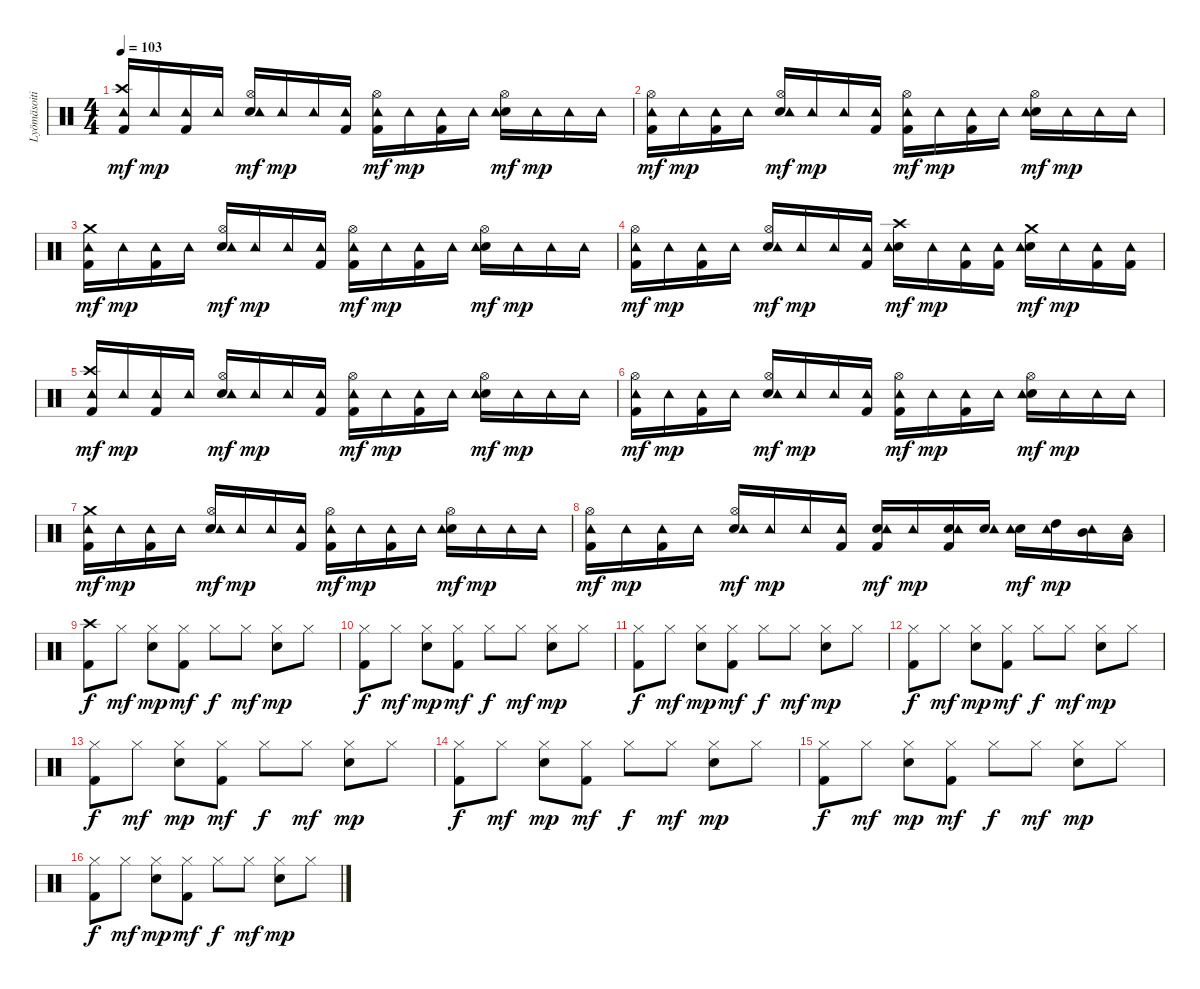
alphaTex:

\track ("Lyömäsoitin" "Lyömäsoiti") {instrument percussion}
\staff {score}
\articulation defaults
\ts (4 4)
\tempo 103
\clef neutral
\ks c
("Kick (hit) 2" "Crash high (hit)" "Tambourine (hit)").16{dy mf} "Tambourine (hit)".16{dy mp} ("Kick (hit) 2" "Tambourine (hit)").16 "Tambourine (hit)".16 ("Hi-Hat (open)" "Snare (hit) 2" "Tambourine (hit)").16{dy mf} "Tambourine (hit)".16{dy mp} "Tambourine (hit)".16 ("Kick (hit) 2" "Tambourine (hit)").16 ("Kick (hit) 2" "Hi-Hat (open)" "Tambourine (hit)").16{dy mf} "Tambourine (hit)".16{dy mp} ("Kick (hit) 2" "Tambourine (hit)").16 "Tambourine (hit)".16 ("Hi-Hat (open)" "Snare (hit) 2" "Tambourine (hit)").16{dy mf} "Tambourine (hit)".16{dy mp} "Tambourine (hit)".16 "Tambourine (hit)".16 |
("Kick (hit) 2" "Hi-Hat (open)" "Tambourine (hit)").16{dy mf} "Tambourine (hit)".16{dy mp} ("Kick (hit) 2" "Tambourine (hit)").16 "Tambourine (hit)".16 ("Hi-Hat (open)" "Snare (hit) 2" "Tambourine (hit)").16{dy mf} "Tambourine (hit)".16{dy mp} "Tambourine (hit)".16 ("Kick (hit) 2" "Tambourine (hit)").16 ("Kick (hit) 2" "Hi-Hat (open)" "Tambourine (hit)").16{dy mf} "Tambourine (hit)".16{dy mp} ("Kick (hit) 2" "Tambourine (hit)").16 "Tambourine (hit)".16 ("Hi-Hat (open)" "Snare (hit) 2" "Tambourine (hit)").16{dy mf} "Tambourine (hit)".16{dy mp} "Tambourine (hit)".16 "Tambourine (hit)".16 |
("Kick (hit) 2" "Crash medium (hit)" "Tambourine (hit)").16{dy mf} "Tambourine (hit)".16{dy mp} ("Kick (hit) 2" "Tambourine (hit)").16 "Tambourine (hit)".16 ("Hi-Hat (open)" "Snare (hit) 2" "Tambourine (hit)").16{dy mf} "Tambourine (hit)".16{dy mp} "Tambourine (hit)".16 ("Kick (hit) 2" "Tambourine (hit)").16 ("Kick (hit) 2" "Hi-Hat (open)" "Tambourine (hit)").16{dy mf} "Tambourine (hit)".16{dy mp} ("Kick (hit) 2" "Tambourine (hit)").16 "Tambourine (hit)".16 ("Hi-Hat (open)" "Snare (hit) 2" "Tambourine (hit)").16{dy mf} "Tambourine (hit)".16{dy mp} "Tambourine (hit)".16 "Tambourine (hit)".16 |
("Kick (hit) 2" "Hi-Hat (open)" "Tambourine (hit)").16{dy mf} "Tambourine (hit)".16{dy mp} ("Kick (hit) 2" "Tambourine (hit)").16 "Tambourine (hit)".16 ("Hi-Hat (open)" "Snare (hit) 2" "Tambourine (hit)").16{dy mf} "Tambourine (hit)".16{dy mp} "Tambourine (hit)".16 ("Kick (hit) 2" "Tambourine (hit)").16 ("Crash high (hit)" "Snare (hit) 2" "Tambourine (hit)").16{dy mf} "Tambourine (hit)".16{dy mp} ("Kick (hit) 2" "Tambourine (hit)").16 ("Kick (hit) 2" "Tambourine (hit)").16 ("Crash medium (hit)" "Snare (hit) 2" "Tambourine (hit)").16{dy mf} "Tambourine (hit)".16{dy mp} ("Kick (hit) 2" "Tambourine (hit)").16 ("Kick (hit) 2" "Tambourine (hit)").16 |
("Kick (hit) 2" "Crash high (hit)" "Tambourine (hit)").16{dy mf} "Tambourine (hit)".16{dy mp} ("Kick (hit) 2" "Tambourine (hit)").16 "Tambourine (hit)".16 ("Hi-Hat (open)" "Snare (hit) 2" "Tambourine (hit)").16{dy mf} "Tambourine (hit)".16{dy mp} "Tambourine (hit)".16 ("Kick (hit) 2" "Tambourine (hit)").16 ("Kick (hit) 2" "Hi-Hat (open)" "Tambourine (hit)").16{dy mf} "Tambourine (hit)".16{dy mp} ("Kick (hit) 2" "Tambourine (hit)").16 "Tambourine (hit)".16 ("Hi-Hat (open)" "Snare (hit) 2" "Tambourine (hit)").16{dy mf} "Tambourine (hit)".16{dy mp} "Tambourine (hit)".16 "Tambourine (hit)".16 |
("Kick (hit) 2" "Hi-Hat (open)" "Tambourine (hit)").16{dy mf} "Tambourine (hit)".16{dy mp} ("Kick (hit) 2" "Tambourine (hit)").16 "Tambourine (hit)".16 ("Hi-Hat (open)" "Snare (hit) 2" "Tambourine (hit)").16{dy mf} "Tambourine (hit)".16{dy mp} "Tambourine (hit)".16 ("Kick (hit) 2" "Tambourine (hit)").16 ("Kick (hit) 2" "Hi-Hat (open)" "Tambourine (hit)").16{dy mf} "Tambourine (hit)".16{dy mp} ("Kick (hit) 2" "Tambourine (hit)").16 "Tambourine (hit)".16 ("Hi-Hat (open)" "Snare (hit) 2" "Tambourine (hit)").16{dy mf} "Tambourine (hit)".16{dy mp} "Tambourine (hit)".16 "Tambourine (hit)".16 |
("Kick (hit) 2" "Crash medium (hit)" "Tambourine (hit)").16{dy mf} "Tambourine (hit)".16{dy mp} ("Kick (hit) 2" "Tambourine (hit)").16 "Tambourine (hit)".16 ("Hi-Hat (open)" "Snare (hit) 2" "Tambourine (hit)").16{dy mf} "Tambourine (hit)".16{dy mp} "Tambourine (hit)".16 ("Kick (hit) 2" "Tambourine (hit)").16 ("Kick (hit) 2" "Hi-Hat (open)" "Tambourine (hit)").16{dy mf} "Tambourine (hit)".16{dy mp} ("Kick (hit) 2" "Tambourine (hit)").16 "Tambourine (hit)".16 ("Hi-Hat (open)" "Snare (hit) 2" "Tambourine (hit)").16{dy mf} "Tambourine (hit)".16{dy mp} "Tambourine (hit)".16 "Tambourine (hit)".16 |
("Kick (hit) 2" "Hi-Hat (open)" "Tambourine (hit)").16{dy mf} "Tambourine (hit)".16{dy mp} ("Kick (hit) 2" "Tambourine (hit)").16 "Tambourine (hit)".16 ("Hi-Hat (open)" "Snare (hit) 2" "Tambourine (hit)").16{dy mf} "Tambourine (hit)".16{dy mp} "Tambourine (hit)".16 ("Kick (hit) 2" "Tambourine (hit)").16 ("Kick (hit) 2" "Snare (hit) 2" "Tambourine (hit)").16{dy mf} "Tambourine (hit)".16{dy mp} ("Kick (hit) 2" "Snare (hit) 2" "Tambourine (hit)").16 ("Snare (hit) 2" "Tambourine (hit)").16 ("Snare (hit) 2" "Tambourine (hit)").16{dy mf} ("High Tom (hit)" "Tambourine (hit)").16{dy mp} ("Mid Tom (hit)" "Tambourine (hit)").16 ("Low Tom (hit)" "Tambourine (hit)").16 |
("Kick (hit) 2" "Crash high (hit)").8{dy f} "Hi-Hat (closed)".8{dy mf} ("Hi-Hat (closed)" "Snare (hit) 2").8{dy mp} ("Kick (hit) 2" "Hi-Hat (closed)").8{dy mf} "Hi-Hat (closed)".8{dy f} "Hi-Hat (closed)".8{dy mf} ("Hi-Hat (closed)" "Snare (hit) 2").8{dy mp} "Hi-Hat (closed)".8 |
("Kick (hit) 2" "Hi-Hat (closed)").8{dy f} "Hi-Hat (closed)".8{dy mf} ("Hi-Hat (closed)" "Snare (hit) 2").8{dy mp} ("Kick (hit) 2" "Hi-Hat (closed)").8{dy mf} "Hi-Hat (closed)".8{dy f} "Hi-Hat (closed)".8{dy mf} ("Hi-Hat (closed)" "Snare (hit) 2").8{dy mp} "Hi-Hat (closed)".8 |
("Kick (hit) 2" "Hi-Hat (closed)").8{dy f} "Hi-Hat (closed)".8{dy mf} ("Hi-Hat (closed)" "Snare (hit) 2").8{dy mp} ("Kick (hit) 2" "Hi-Hat (closed)").8{dy mf} "Hi-Hat (closed)".8{dy f} "Hi-Hat (closed)".8{dy mf} ("Hi-Hat (closed)" "Snare (hit) 2").8{dy mp} "Hi-Hat (closed)".8 |
("Kick (hit) 2" "Hi-Hat (closed)").8{dy f} "Hi-Hat (closed)".8{dy mf} ("Hi-Hat (closed)" "Snare (hit) 2").8{dy mp} ("Kick (hit) 2" "Hi-Hat (closed)").8{dy mf} "Hi-Hat (closed)".8{dy f} "Hi-Hat (closed)".8{dy mf} ("Hi-Hat (closed)" "Snare (hit) 2").8{dy mp} "Hi-Hat (closed)".8 |
("Kick (hit) 2" "Hi-Hat (closed)").8{dy f} "Hi-Hat (closed)".8{dy mf} ("Hi-Hat (closed)" "Snare (hit) 2").8{dy mp} ("Kick (hit) 2" "Hi-Hat (closed)").8{dy mf} "Hi-Hat (closed)".8{dy f} "Hi-Hat (closed)".8{dy mf} ("Hi-Hat (closed)" "Snare (hit) 2").8{dy mp} "Hi-Hat (closed)".8 |
("Kick (hit) 2" "Hi-Hat (closed)").8{dy f} "Hi-Hat (closed)".8{dy mf} ("Hi-Hat (closed)" "Snare (hit) 2").8{dy mp} ("Kick (hit) 2" "Hi-Hat (closed)").8{dy mf} "Hi-Hat (closed)".8{dy f} "Hi-Hat (closed)".8{dy mf} ("Hi-Hat (closed)" "Snare (hit) 2").8{dy mp} "Hi-Hat (closed)".8 |
("Kick (hit) 2" "Hi-Hat (closed)").8{dy f} "Hi-Hat (closed)".8{dy mf} ("Hi-Hat (closed)" "Snare (hit) 2").8{dy mp} ("Kick (hit) 2" "Hi-Hat (closed)").8{dy mf} "Hi-Hat (closed)".8{dy f} "Hi-Hat (closed)".8{dy mf} ("Hi-Hat (closed)" "Snare (hit) 2").8{dy mp} "Hi-Hat (closed)".8 |
("Kick (hit) 2" "Hi-Hat (closed)").8{dy f} "Hi-Hat (closed)".8{dy mf} ("Hi-Hat (closed)" "Snare (hit) 2").8{dy mp} ("Kick (hit) 2" "Hi-Hat (closed)").8{dy mf} "Hi-Hat (closed)".8{dy f} "Hi-Hat (closed)".8{dy mf} ("Hi-Hat (closed)" "Snare (hit) 2").8{dy mp} "Hi-Hat (closed)".8
